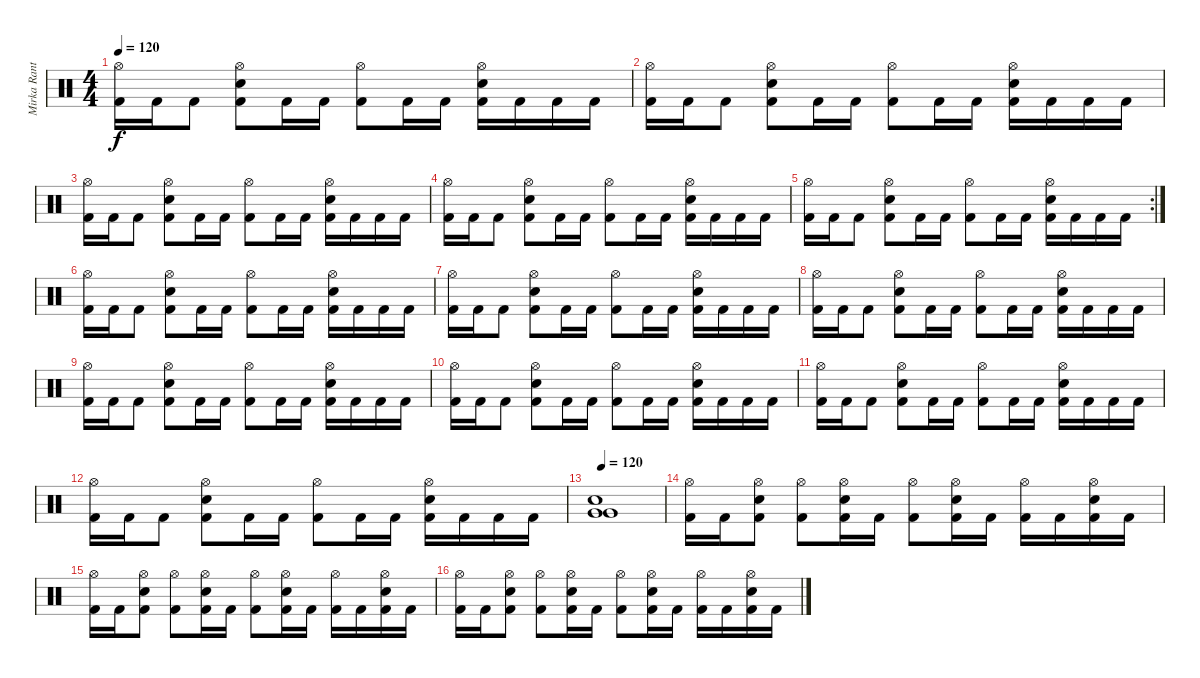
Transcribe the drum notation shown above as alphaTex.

\track ("Mirka Rantanen" "Mirka Rant") {instrument percussion}
\staff {score}
\articulation defaults
\ts (4 4)
\tempo 120
\clef neutral
\ks c
("Hi-Hat (open)" "Kick (hit) 2").16{dy f} "Kick (hit) 2".16 "Kick (hit) 2".8 ("Hi-Hat (open)" "Snare (hit) 2" "Kick (hit) 2").8 "Kick (hit) 2".16 "Kick (hit) 2".16 ("Hi-Hat (open)" "Kick (hit) 2").8 "Kick (hit) 2".16 "Kick (hit) 2".16 ("Snare (hit) 2" "Hi-Hat (open)" "Kick (hit) 2").16 "Kick (hit) 2".16 "Kick (hit) 2".16 "Kick (hit) 2".16 |
("Hi-Hat (open)" "Kick (hit) 2").16 "Kick (hit) 2".16 "Kick (hit) 2".8 ("Hi-Hat (open)" "Snare (hit) 2" "Kick (hit) 2").8 "Kick (hit) 2".16 "Kick (hit) 2".16 ("Hi-Hat (open)" "Kick (hit) 2").8 "Kick (hit) 2".16 "Kick (hit) 2".16 ("Snare (hit) 2" "Hi-Hat (open)" "Kick (hit) 2").16 "Kick (hit) 2".16 "Kick (hit) 2".16 "Kick (hit) 2".16 |
("Hi-Hat (open)" "Kick (hit) 2").16 "Kick (hit) 2".16 "Kick (hit) 2".8 ("Hi-Hat (open)" "Snare (hit) 2" "Kick (hit) 2").8 "Kick (hit) 2".16 "Kick (hit) 2".16 ("Hi-Hat (open)" "Kick (hit) 2").8 "Kick (hit) 2".16 "Kick (hit) 2".16 ("Snare (hit) 2" "Hi-Hat (open)" "Kick (hit) 2").16 "Kick (hit) 2".16 "Kick (hit) 2".16 "Kick (hit) 2".16 |
("Hi-Hat (open)" "Kick (hit) 2").16 "Kick (hit) 2".16 "Kick (hit) 2".8 ("Hi-Hat (open)" "Snare (hit) 2" "Kick (hit) 2").8 "Kick (hit) 2".16 "Kick (hit) 2".16 ("Hi-Hat (open)" "Kick (hit) 2").8 "Kick (hit) 2".16 "Kick (hit) 2".16 ("Snare (hit) 2" "Hi-Hat (open)" "Kick (hit) 2").16 "Kick (hit) 2".16 "Kick (hit) 2".16 "Kick (hit) 2".16 |
\rc 2
("Hi-Hat (open)" "Kick (hit) 2").16 "Kick (hit) 2".16 "Kick (hit) 2".8 ("Hi-Hat (open)" "Snare (hit) 2" "Kick (hit) 2").8 "Kick (hit) 2".16 "Kick (hit) 2".16 ("Hi-Hat (open)" "Kick (hit) 2").8 "Kick (hit) 2".16 "Kick (hit) 2".16 ("Snare (hit) 2" "Hi-Hat (open)" "Kick (hit) 2").16 "Kick (hit) 2".16 "Kick (hit) 2".16 "Kick (hit) 2".16 |
("Hi-Hat (open)" "Kick (hit) 2").16 "Kick (hit) 2".16 "Kick (hit) 2".8 ("Hi-Hat (open)" "Snare (hit) 2" "Kick (hit) 2").8 "Kick (hit) 2".16 "Kick (hit) 2".16 ("Hi-Hat (open)" "Kick (hit) 2").8 "Kick (hit) 2".16 "Kick (hit) 2".16 ("Snare (hit) 2" "Hi-Hat (open)" "Kick (hit) 2").16 "Kick (hit) 2".16 "Kick (hit) 2".16 "Kick (hit) 2".16 |
("Hi-Hat (open)" "Kick (hit) 2").16 "Kick (hit) 2".16 "Kick (hit) 2".8 ("Hi-Hat (open)" "Snare (hit) 2" "Kick (hit) 2").8 "Kick (hit) 2".16 "Kick (hit) 2".16 ("Hi-Hat (open)" "Kick (hit) 2").8 "Kick (hit) 2".16 "Kick (hit) 2".16 ("Snare (hit) 2" "Hi-Hat (open)" "Kick (hit) 2").16 "Kick (hit) 2".16 "Kick (hit) 2".16 "Kick (hit) 2".16 |
("Hi-Hat (open)" "Kick (hit) 2").16 "Kick (hit) 2".16 "Kick (hit) 2".8 ("Hi-Hat (open)" "Snare (hit) 2" "Kick (hit) 2").8 "Kick (hit) 2".16 "Kick (hit) 2".16 ("Hi-Hat (open)" "Kick (hit) 2").8 "Kick (hit) 2".16 "Kick (hit) 2".16 ("Snare (hit) 2" "Hi-Hat (open)" "Kick (hit) 2").16 "Kick (hit) 2".16 "Kick (hit) 2".16 "Kick (hit) 2".16 |
("Hi-Hat (open)" "Kick (hit) 2").16 "Kick (hit) 2".16 "Kick (hit) 2".8 ("Hi-Hat (open)" "Snare (hit) 2" "Kick (hit) 2").8 "Kick (hit) 2".16 "Kick (hit) 2".16 ("Hi-Hat (open)" "Kick (hit) 2").8 "Kick (hit) 2".16 "Kick (hit) 2".16 ("Snare (hit) 2" "Hi-Hat (open)" "Kick (hit) 2").16 "Kick (hit) 2".16 "Kick (hit) 2".16 "Kick (hit) 2".16 |
("Hi-Hat (open)" "Kick (hit) 2").16 "Kick (hit) 2".16 "Kick (hit) 2".8 ("Hi-Hat (open)" "Snare (hit) 2" "Kick (hit) 2").8 "Kick (hit) 2".16 "Kick (hit) 2".16 ("Hi-Hat (open)" "Kick (hit) 2").8 "Kick (hit) 2".16 "Kick (hit) 2".16 ("Snare (hit) 2" "Hi-Hat (open)" "Kick (hit) 2").16 "Kick (hit) 2".16 "Kick (hit) 2".16 "Kick (hit) 2".16 |
("Hi-Hat (open)" "Kick (hit) 2").16 "Kick (hit) 2".16 "Kick (hit) 2".8 ("Hi-Hat (open)" "Snare (hit) 2" "Kick (hit) 2").8 "Kick (hit) 2".16 "Kick (hit) 2".16 ("Hi-Hat (open)" "Kick (hit) 2").8 "Kick (hit) 2".16 "Kick (hit) 2".16 ("Snare (hit) 2" "Hi-Hat (open)" "Kick (hit) 2").16 "Kick (hit) 2".16 "Kick (hit) 2".16 "Kick (hit) 2".16 |
("Hi-Hat (open)" "Kick (hit) 2").16 "Kick (hit) 2".16 "Kick (hit) 2".8 ("Hi-Hat (open)" "Snare (hit) 2" "Kick (hit) 2").8 "Kick (hit) 2".16 "Kick (hit) 2".16 ("Hi-Hat (open)" "Kick (hit) 2").8 "Kick (hit) 2".16 "Kick (hit) 2".16 ("Snare (hit) 2" "Hi-Hat (open)" "Kick (hit) 2").16 "Kick (hit) 2".16 "Kick (hit) 2".16 "Kick (hit) 2".16 |
\tempo 120
("Very Low Tom (hit)" "Very Low Tom (hit)" "Snare (hit) 2").1 |
("Hi-Hat (open)" "Kick (hit) 2").16 "Kick (hit) 2".16 ("Snare (hit) 2" "Hi-Hat (open)" "Kick (hit) 2").8 ("Hi-Hat (open)" "Kick (hit) 2").8 ("Snare (hit) 2" "Hi-Hat (open)" "Kick (hit) 2").16 "Kick (hit) 2".16 ("Hi-Hat (open)" "Kick (hit) 2").8 ("Snare (hit) 2" "Hi-Hat (open)" "Kick (hit) 2").16 "Kick (hit) 2".16 ("Hi-Hat (open)" "Kick (hit) 2").16 "Kick (hit) 2".16 ("Snare (hit) 2" "Hi-Hat (open)" "Kick (hit) 2").16 "Kick (hit) 2".16 |
("Hi-Hat (open)" "Kick (hit) 2").16 "Kick (hit) 2".16 ("Snare (hit) 2" "Hi-Hat (open)" "Kick (hit) 2").8 ("Hi-Hat (open)" "Kick (hit) 2").8 ("Snare (hit) 2" "Hi-Hat (open)" "Kick (hit) 2").16 "Kick (hit) 2".16 ("Hi-Hat (open)" "Kick (hit) 2").8 ("Snare (hit) 2" "Hi-Hat (open)" "Kick (hit) 2").16 "Kick (hit) 2".16 ("Hi-Hat (open)" "Kick (hit) 2").16 "Kick (hit) 2".16 ("Snare (hit) 2" "Hi-Hat (open)" "Kick (hit) 2").16 "Kick (hit) 2".16 |
("Hi-Hat (open)" "Kick (hit) 2").16 "Kick (hit) 2".16 ("Snare (hit) 2" "Hi-Hat (open)" "Kick (hit) 2").8 ("Hi-Hat (open)" "Kick (hit) 2").8 ("Snare (hit) 2" "Hi-Hat (open)" "Kick (hit) 2").16 "Kick (hit) 2".16 ("Hi-Hat (open)" "Kick (hit) 2").8 ("Snare (hit) 2" "Hi-Hat (open)" "Kick (hit) 2").16 "Kick (hit) 2".16 ("Hi-Hat (open)" "Kick (hit) 2").16 "Kick (hit) 2".16 ("Snare (hit) 2" "Hi-Hat (open)" "Kick (hit) 2").16 "Kick (hit) 2".16
